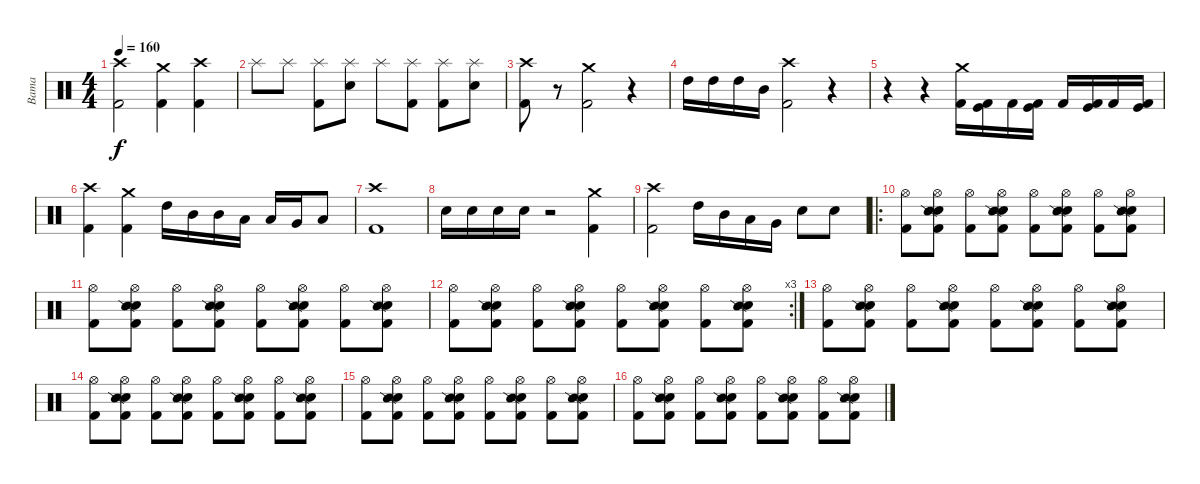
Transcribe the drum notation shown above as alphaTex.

\track ("Bama" "Bama") {instrument percussion}
\staff {score}
\articulation defaults
\ts (4 4)
\tempo 160
\clef neutral
\ks c
("Crash high (hit)" "Kick (hit) 2").2{dy f} ("Crash medium (hit)" "Kick (hit) 2").4 ("Crash high (hit)" "Kick (hit) 2").4 |
"Splash (hit)".8 "Splash (hit)".8 ("Splash (hit)" "Kick (hit) 2").8 ("Splash (hit)" "Electric Snare (hit)").8 "Splash (hit)".8 ("Splash (hit)" "Kick (hit) 2").8 ("Splash (hit)" "Kick (hit) 2").8 ("Splash (hit)" "Electric Snare (hit)").8 |
("Crash high (hit)" "Kick (hit) 2").8 r.8 ("Crash medium (hit)" "Kick (hit) 2").2 r.4 |
"High Tom (hit)".16 "High Tom (hit)".16 "High Tom (hit)".16 "Mid Tom (hit)".16 ("Crash high (hit)" "Kick (hit) 2").2 r.4 |
r.4 r.4 ("Crash medium (hit)" "Kick (hit) 2").16 ("Kick (hit)" "Kick (hit) 2").16 "Kick (hit) 2".16 ("Kick (hit)" "Kick (hit) 2").16 "Kick (hit) 2".16 ("Kick (hit)" "Kick (hit) 2").16 "Kick (hit) 2".16 ("Kick (hit)" "Kick (hit) 2").16 |
("Crash high (hit)" "Kick (hit) 2").4 ("Crash medium (hit)" "Kick (hit) 2").4 "High Tom (hit)".16 "Mid Tom (hit)".16 "Mid Tom (hit)".16 "Low Tom (hit)".16 "Low Tom (hit)".16 "Very Low Tom (hit)".16 "Low Floor Tom (hit)".8 |
("Crash high (hit)" "Kick (hit) 2").1 |
"Electric Snare (hit)".16 "Electric Snare (hit)".16 "Electric Snare (hit)".16 "Electric Snare (hit)".16 r.2 ("Crash medium (hit)" "Kick (hit) 2").4 |
("Crash high (hit)" "Kick (hit) 2").2 "High Tom (hit)".16 "Mid Tom (hit)".16 "Low Tom (hit)".16 "Very Low Tom (hit)".16 "Electric Snare (hit)".8 "Electric Snare (hit)".8 |
\ro
("Hi-Hat (open)" "Kick (hit) 2").8 ("Hi-Hat (open)" "Electric Snare (hit)" "Snare (side stick) 2" "Kick (hit) 2").8 ("Hi-Hat (open)" "Kick (hit) 2").8 ("Hi-Hat (open)" "Electric Snare (hit)" "Snare (side stick) 2" "Kick (hit) 2").8 ("Hi-Hat (open)" "Kick (hit) 2").8 ("Hi-Hat (open)" "Electric Snare (hit)" "Snare (side stick) 2" "Kick (hit) 2").8 ("Hi-Hat (open)" "Kick (hit) 2").8 ("Hi-Hat (open)" "Electric Snare (hit)" "Snare (side stick) 2" "Kick (hit) 2").8 |
("Hi-Hat (open)" "Kick (hit) 2").8 ("Hi-Hat (open)" "Electric Snare (hit)" "Snare (side stick) 2" "Kick (hit) 2").8 ("Hi-Hat (open)" "Kick (hit) 2").8 ("Hi-Hat (open)" "Electric Snare (hit)" "Snare (side stick) 2" "Kick (hit) 2").8 ("Hi-Hat (open)" "Kick (hit) 2").8 ("Hi-Hat (open)" "Electric Snare (hit)" "Snare (side stick) 2" "Kick (hit) 2").8 ("Hi-Hat (open)" "Kick (hit) 2").8 ("Hi-Hat (open)" "Electric Snare (hit)" "Snare (side stick) 2" "Kick (hit) 2").8 |
\rc 3
("Hi-Hat (open)" "Kick (hit) 2").8 ("Hi-Hat (open)" "Electric Snare (hit)" "Snare (side stick) 2" "Kick (hit) 2").8 ("Hi-Hat (open)" "Kick (hit) 2").8 ("Hi-Hat (open)" "Electric Snare (hit)" "Snare (side stick) 2" "Kick (hit) 2").8 ("Hi-Hat (open)" "Kick (hit) 2").8 ("Hi-Hat (open)" "Electric Snare (hit)" "Snare (side stick) 2" "Kick (hit) 2").8 ("Hi-Hat (open)" "Kick (hit) 2").8 ("Hi-Hat (open)" "Electric Snare (hit)" "Snare (side stick) 2" "Kick (hit) 2").8 |
("Hi-Hat (open)" "Kick (hit) 2").8 ("Hi-Hat (open)" "Electric Snare (hit)" "Snare (side stick) 2" "Kick (hit) 2").8 ("Hi-Hat (open)" "Kick (hit) 2").8 ("Hi-Hat (open)" "Electric Snare (hit)" "Snare (side stick) 2" "Kick (hit) 2").8 ("Hi-Hat (open)" "Kick (hit) 2").8 ("Hi-Hat (open)" "Electric Snare (hit)" "Snare (side stick) 2" "Kick (hit) 2").8 ("Hi-Hat (open)" "Kick (hit) 2").8 ("Hi-Hat (open)" "Electric Snare (hit)" "Snare (side stick) 2" "Kick (hit) 2").8 |
("Hi-Hat (open)" "Kick (hit) 2").8 ("Hi-Hat (open)" "Electric Snare (hit)" "Snare (side stick) 2" "Kick (hit) 2").8 ("Hi-Hat (open)" "Kick (hit) 2").8 ("Hi-Hat (open)" "Electric Snare (hit)" "Snare (side stick) 2" "Kick (hit) 2").8 ("Hi-Hat (open)" "Kick (hit) 2").8 ("Hi-Hat (open)" "Electric Snare (hit)" "Snare (side stick) 2" "Kick (hit) 2").8 ("Hi-Hat (open)" "Kick (hit) 2").8 ("Hi-Hat (open)" "Electric Snare (hit)" "Snare (side stick) 2" "Kick (hit) 2").8 |
("Hi-Hat (open)" "Kick (hit) 2").8 ("Hi-Hat (open)" "Electric Snare (hit)" "Snare (side stick) 2" "Kick (hit) 2").8 ("Hi-Hat (open)" "Kick (hit) 2").8 ("Hi-Hat (open)" "Electric Snare (hit)" "Snare (side stick) 2" "Kick (hit) 2").8 ("Hi-Hat (open)" "Kick (hit) 2").8 ("Hi-Hat (open)" "Electric Snare (hit)" "Snare (side stick) 2" "Kick (hit) 2").8 ("Hi-Hat (open)" "Kick (hit) 2").8 ("Hi-Hat (open)" "Electric Snare (hit)" "Snare (side stick) 2" "Kick (hit) 2").8 |
("Hi-Hat (open)" "Kick (hit) 2").8 ("Hi-Hat (open)" "Electric Snare (hit)" "Snare (side stick) 2" "Kick (hit) 2").8 ("Hi-Hat (open)" "Kick (hit) 2").8 ("Hi-Hat (open)" "Electric Snare (hit)" "Snare (side stick) 2" "Kick (hit) 2").8 ("Hi-Hat (open)" "Kick (hit) 2").8 ("Hi-Hat (open)" "Electric Snare (hit)" "Snare (side stick) 2" "Kick (hit) 2").8 ("Hi-Hat (open)" "Kick (hit) 2").8 ("Hi-Hat (open)" "Electric Snare (hit)" "Snare (side stick) 2" "Kick (hit) 2").8
